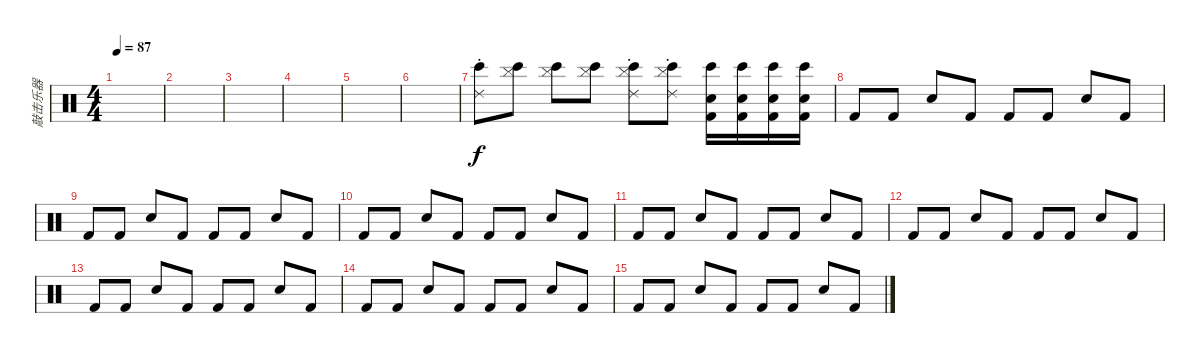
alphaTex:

\track ("敲击乐器" "敲击乐器") {instrument percussion}
\staff {score}
\articulation defaults
\ts (4 4)
\tempo 87
\clef neutral
\ks c
|
|
|
|
|
|
("Bongo High (hit)" "Ride (choke) 2").8 ("Bongo High (hit)" "Cymbal (hit)").8 ("Bongo High (hit)" "Cymbal (hit)").8 ("Bongo High (hit)" "Cymbal (hit)").8 ("Bongo High (hit)" "Ride (choke) 2" "Cymbal (hit)").8 ("Bongo High (hit)" "Ride (choke) 2" "Cymbal (hit)").8 ("Bongo High (hit)" "Kick (hit) 2" "Snare (hit) 2").16 ("Bongo High (hit)" "Kick (hit) 2" "Snare (hit) 2").16 ("Bongo High (hit)" "Kick (hit) 2" "Snare (hit) 2").16 ("Bongo High (hit)" "Kick (hit) 2" "Snare (hit) 2").16 |
"Kick (hit) 2".8 "Kick (hit) 2".8 "Snare (hit) 2".8 "Kick (hit) 2".8 "Kick (hit) 2".8 "Kick (hit) 2".8 "Snare (hit) 2".8 "Kick (hit) 2".8 |
"Kick (hit) 2".8 "Kick (hit) 2".8 "Snare (hit) 2".8 "Kick (hit) 2".8 "Kick (hit) 2".8 "Kick (hit) 2".8 "Snare (hit) 2".8 "Kick (hit) 2".8 |
"Kick (hit) 2".8 "Kick (hit) 2".8 "Snare (hit) 2".8 "Kick (hit) 2".8 "Kick (hit) 2".8 "Kick (hit) 2".8 "Snare (hit) 2".8 "Kick (hit) 2".8 |
"Kick (hit) 2".8 "Kick (hit) 2".8 "Snare (hit) 2".8 "Kick (hit) 2".8 "Kick (hit) 2".8 "Kick (hit) 2".8 "Snare (hit) 2".8 "Kick (hit) 2".8 |
"Kick (hit) 2".8 "Kick (hit) 2".8 "Snare (hit) 2".8 "Kick (hit) 2".8 "Kick (hit) 2".8 "Kick (hit) 2".8 "Snare (hit) 2".8 "Kick (hit) 2".8 |
"Kick (hit) 2".8 "Kick (hit) 2".8 "Snare (hit) 2".8 "Kick (hit) 2".8 "Kick (hit) 2".8 "Kick (hit) 2".8 "Snare (hit) 2".8 "Kick (hit) 2".8 |
"Kick (hit) 2".8 "Kick (hit) 2".8 "Snare (hit) 2".8 "Kick (hit) 2".8 "Kick (hit) 2".8 "Kick (hit) 2".8 "Snare (hit) 2".8 "Kick (hit) 2".8 |
"Kick (hit) 2".8 "Kick (hit) 2".8 "Snare (hit) 2".8 "Kick (hit) 2".8 "Kick (hit) 2".8 "Kick (hit) 2".8 "Snare (hit) 2".8 "Kick (hit) 2".8
